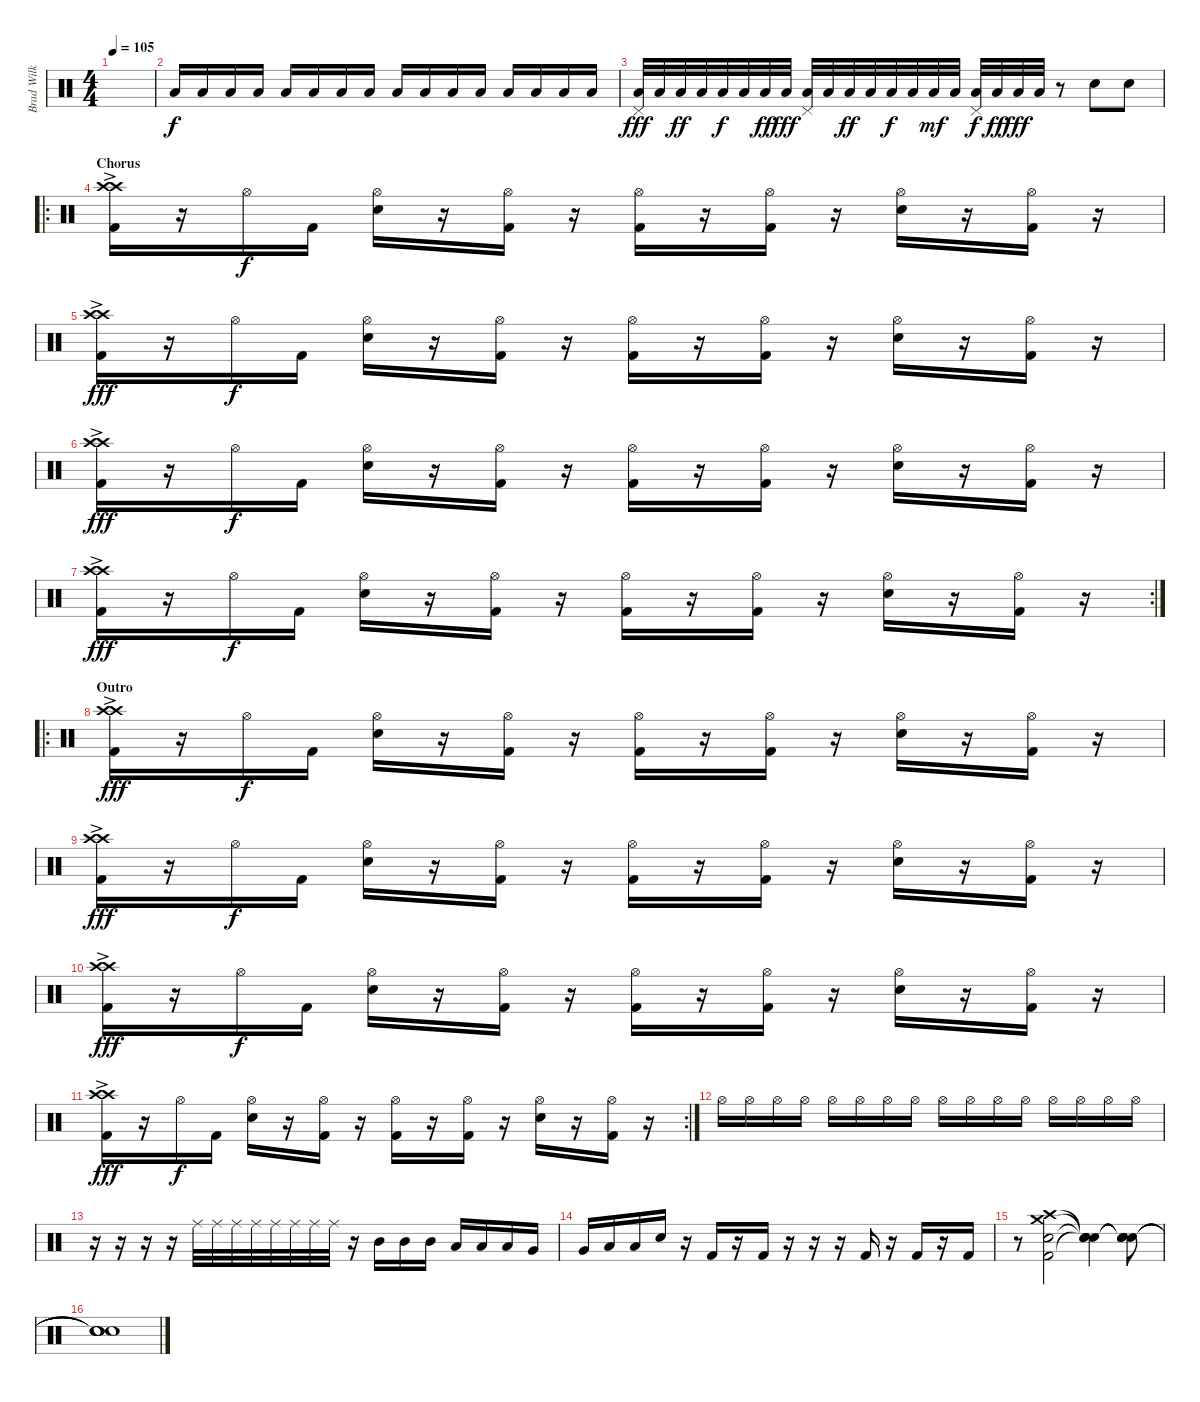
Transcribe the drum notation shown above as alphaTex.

\track ("Brad Wilk - Drums" "Brad Wilk ") {instrument percussion}
\staff {score}
\articulation defaults
\ts (4 4)
\tempo 105
\clef neutral
\ks c
|
"Low Floor Tom (hit)".16 "Low Floor Tom (hit)".16 "Low Floor Tom (hit)".16 "Low Floor Tom (hit)".16 "Low Floor Tom (hit)".16 "Low Floor Tom (hit)".16 "Low Floor Tom (hit)".16 "Low Floor Tom (hit)".16 "Low Floor Tom (hit)".16 "Low Floor Tom (hit)".16 "Low Floor Tom (hit)".16 "Low Floor Tom (hit)".16 "Low Floor Tom (hit)".16 "Low Floor Tom (hit)".16 "Low Floor Tom (hit)".16 "Low Floor Tom (hit)".16 |
("Pedal Hi-Hat (hit)" "Low Floor Tom (hit)").32{dy fff} "Low Floor Tom (hit)".32 "Low Floor Tom (hit)".32{dy ff} "Low Floor Tom (hit)".32 "Low Floor Tom (hit)".32{dy f} "Low Floor Tom (hit)".32 "Low Floor Tom (hit)".32{dy ff} "Low Floor Tom (hit)".32{dy fff} ("Pedal Hi-Hat (hit)" "Low Floor Tom (hit)").32 "Low Floor Tom (hit)".32 "Low Floor Tom (hit)".32{dy ff} "Low Floor Tom (hit)".32 "Low Floor Tom (hit)".32{dy f} "Low Floor Tom (hit)".32 "Low Floor Tom (hit)".32{dy mf} "Low Floor Tom (hit)".32 ("Pedal Hi-Hat (hit)" "Low Floor Tom (hit)").32{dy f} "Low Floor Tom (hit)".32{dy ff} "Low Floor Tom (hit)".32{dy fff} "Low Floor Tom (hit)".32 r.8 "Electric Snare (hit)".8 "Electric Snare (hit)".8 |
\ro
\section ("" "Chorus")
("Crash high (hit)"{ac} "Crash high (hit)"{ac} "Kick (hit) 2").16 r.16 "Hi-Hat (open)".16{dy f} "Kick (hit) 2".16 ("Hi-Hat (open)" "Electric Snare (hit)").16 r.16 ("Hi-Hat (open)" "Kick (hit) 2").16 r.16 ("Hi-Hat (open)" "Kick (hit) 2").16 r.16 ("Hi-Hat (open)" "Kick (hit) 2").16 r.16 ("Hi-Hat (open)" "Electric Snare (hit)").16 r.16 ("Hi-Hat (open)" "Kick (hit) 2").16 r.16 |
("Crash high (hit)"{ac} "Crash high (hit)"{ac} "Kick (hit) 2").16{dy fff} r.16 "Hi-Hat (open)".16{dy f} "Kick (hit) 2".16 ("Hi-Hat (open)" "Electric Snare (hit)").16 r.16 ("Hi-Hat (open)" "Kick (hit) 2").16 r.16 ("Hi-Hat (open)" "Kick (hit) 2").16 r.16 ("Hi-Hat (open)" "Kick (hit) 2").16 r.16 ("Hi-Hat (open)" "Electric Snare (hit)").16 r.16 ("Hi-Hat (open)" "Kick (hit) 2").16 r.16 |
("Crash high (hit)"{ac} "Crash high (hit)"{ac} "Kick (hit) 2").16{dy fff} r.16 "Hi-Hat (open)".16{dy f} "Kick (hit) 2".16 ("Hi-Hat (open)" "Electric Snare (hit)").16 r.16 ("Hi-Hat (open)" "Kick (hit) 2").16 r.16 ("Hi-Hat (open)" "Kick (hit) 2").16 r.16 ("Hi-Hat (open)" "Kick (hit) 2").16 r.16 ("Hi-Hat (open)" "Electric Snare (hit)").16 r.16 ("Hi-Hat (open)" "Kick (hit) 2").16 r.16 |
\rc 2
("Crash high (hit)"{ac} "Crash high (hit)"{ac} "Kick (hit) 2").16{dy fff} r.16 "Hi-Hat (open)".16{dy f} "Kick (hit) 2".16 ("Hi-Hat (open)" "Electric Snare (hit)").16 r.16 ("Hi-Hat (open)" "Kick (hit) 2").16 r.16 ("Hi-Hat (open)" "Kick (hit) 2").16 r.16 ("Hi-Hat (open)" "Kick (hit) 2").16 r.16 ("Hi-Hat (open)" "Electric Snare (hit)").16 r.16 ("Hi-Hat (open)" "Kick (hit) 2").16 r.16 |
\ro
\section ("" "Outro")
("Crash high (hit)"{ac} "Crash high (hit)"{ac} "Kick (hit) 2").16{dy fff} r.16 "Hi-Hat (open)".16{dy f} "Kick (hit) 2".16 ("Hi-Hat (open)" "Electric Snare (hit)").16 r.16 ("Hi-Hat (open)" "Kick (hit) 2").16 r.16 ("Hi-Hat (open)" "Kick (hit) 2").16 r.16 ("Hi-Hat (open)" "Kick (hit) 2").16 r.16 ("Hi-Hat (open)" "Electric Snare (hit)").16 r.16 ("Hi-Hat (open)" "Kick (hit) 2").16 r.16 |
("Crash high (hit)"{ac} "Crash high (hit)"{ac} "Kick (hit) 2").16{dy fff} r.16 "Hi-Hat (open)".16{dy f} "Kick (hit) 2".16 ("Hi-Hat (open)" "Electric Snare (hit)").16 r.16 ("Hi-Hat (open)" "Kick (hit) 2").16 r.16 ("Hi-Hat (open)" "Kick (hit) 2").16 r.16 ("Hi-Hat (open)" "Kick (hit) 2").16 r.16 ("Hi-Hat (open)" "Electric Snare (hit)").16 r.16 ("Hi-Hat (open)" "Kick (hit) 2").16 r.16 |
("Crash high (hit)"{ac} "Crash high (hit)"{ac} "Kick (hit) 2").16{dy fff} r.16 "Hi-Hat (open)".16{dy f} "Kick (hit) 2".16 ("Hi-Hat (open)" "Electric Snare (hit)").16 r.16 ("Hi-Hat (open)" "Kick (hit) 2").16 r.16 ("Hi-Hat (open)" "Kick (hit) 2").16 r.16 ("Hi-Hat (open)" "Kick (hit) 2").16 r.16 ("Hi-Hat (open)" "Electric Snare (hit)").16 r.16 ("Hi-Hat (open)" "Kick (hit) 2").16 r.16 |
\rc 2
("Crash high (hit)"{ac} "Crash high (hit)"{ac} "Kick (hit) 2").16{dy fff} r.16 "Hi-Hat (open)".16{dy f} "Kick (hit) 2".16 ("Hi-Hat (open)" "Electric Snare (hit)").16 r.16 ("Hi-Hat (open)" "Kick (hit) 2").16 r.16 ("Hi-Hat (open)" "Kick (hit) 2").16 r.16 ("Hi-Hat (open)" "Kick (hit) 2").16 r.16 ("Hi-Hat (open)" "Electric Snare (hit)").16 r.16 ("Hi-Hat (open)" "Kick (hit) 2").16 r.16 |
"Hi-Hat (open)".16 "Hi-Hat (open)".16 "Hi-Hat (open)".16 "Hi-Hat (open)".16 "Hi-Hat (open)".16 "Hi-Hat (open)".16 "Hi-Hat (open)".16 "Hi-Hat (open)".16 "Hi-Hat (open)".16 "Hi-Hat (open)".16 "Hi-Hat (open)".16 "Hi-Hat (open)".16 "Hi-Hat (open)".16 "Hi-Hat (open)".16 "Hi-Hat (open)".16 "Hi-Hat (open)".16 |
r.16 r.16 r.16 r.16 "Ride (middle)".32 "Ride (middle)".32 "Ride (middle)".32 "Ride (middle)".32 "Ride (middle)".32 "Ride (middle)".32 "Ride (middle)".32 "Ride (middle)".32 r.16 "Mid Tom (hit)".16 "Mid Tom (hit)".16 "Mid Tom (hit)".16 "Low Tom (hit)".16 "Low Tom (hit)".16 "Low Tom (hit)".16 "Very Low Tom (hit)".16 |
"Very Low Tom (hit)".16 "Low Floor Tom (hit)".16 "Low Floor Tom (hit)".16 "Electric Snare (hit)".16 r.16 "Kick (hit) 2".16 r.16 "Kick (hit) 2".16 r.16 r.16 r.16 "Kick (hit) 2".16 r.16 "Kick (hit) 2".16 r.16 "Kick (hit) 2".16 |
r.8 ("Crash high (hit)" "Crash medium (hit)" "Electric Snare (hit)" "Kick (hit) 2").2 ("Snare (hit)"{t} "Snare (hit)"{t} "Snare (hit)"{t} "Snare (hit)"{t}).4 ("Snare (hit)"{t} "Snare (hit)"{t} "Snare (hit)"{t} "Snare (hit)"{t}).8 |
("Snare (hit)"{t} "Snare (hit)"{t} "Snare (hit)"{t} "Snare (hit)"{t}).1
